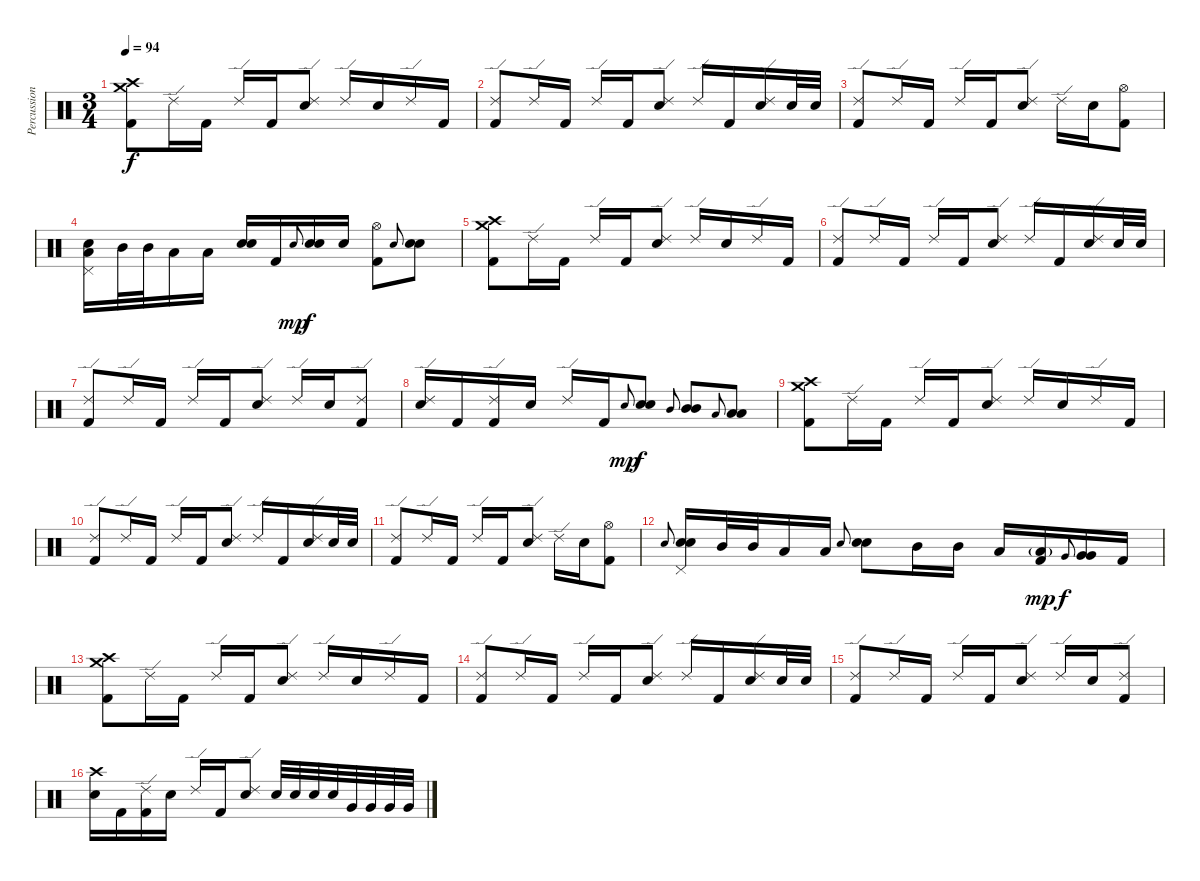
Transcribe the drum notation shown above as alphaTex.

\track ("Percussion" "Percussion") {instrument percussion}
\staff {score}
\articulation defaults
\ts (3 4)
\tempo 94
\clef neutral
\ks c
("Crash medium (hit)" "Crash high (hit)" "Kick (hit) 2").8{dy f} "Ride (edge) 2".16 "Kick (hit) 2".16 "Ride (edge) 2".16 "Kick (hit) 2".16 ("Ride (edge) 2" "Electric Snare (hit)").8 "Ride (edge) 2".16 "Electric Snare (hit)".16 "Ride (edge) 2".16 "Kick (hit) 2".16 |
("Ride (edge) 2" "Kick (hit) 2").8 "Ride (edge) 2".16 "Kick (hit) 2".16 "Ride (edge) 2".16 "Kick (hit) 2".16 ("Ride (edge) 2" "Electric Snare (hit)").8 "Ride (edge) 2".16 "Kick (hit) 2".16 ("Ride (edge) 2" "Electric Snare (hit)").16 "Electric Snare (hit)".32 "Electric Snare (hit)".32 |
("Ride (edge) 2" "Kick (hit) 2").8 "Ride (edge) 2".16 "Kick (hit) 2".16 "Ride (edge) 2".16 "Kick (hit) 2".16 ("Ride (edge) 2" "Electric Snare (hit)").8 "Ride (edge) 2".16 "Electric Snare (hit)".16 ("Hi-Hat (open)" "Kick (hit) 2").8 |
("Pedal Hi-Hat (hit)" "Low Tom (hit)" "Electric Snare (hit)").16 "Mid Tom (hit)".32 "Mid Tom (hit)".32 "Low Tom (hit)".16 "Low Tom (hit)".16 ("Electric Snare (hit)" "Electric Snare (hit)").16 "Kick (hit) 2".16 "Electric Snare (hit)".8{gr onbeat dy mp} ("Electric Snare (hit)" "Electric Snare (hit)").16{dy f} "Electric Snare (hit)".16 ("Hi-Hat (open)" "Kick (hit) 2").8 "Electric Snare (hit)".8{gr onbeat} ("Electric Snare (hit)" "Electric Snare (hit)").8 |
("Crash medium (hit)" "Crash high (hit)" "Kick (hit) 2").8 "Ride (edge) 2".16 "Kick (hit) 2".16 "Ride (edge) 2".16 "Kick (hit) 2".16 ("Ride (edge) 2" "Electric Snare (hit)").8 "Ride (edge) 2".16 "Electric Snare (hit)".16 "Ride (edge) 2".16 "Kick (hit) 2".16 |
("Ride (edge) 2" "Kick (hit) 2").8 "Ride (edge) 2".16 "Kick (hit) 2".16 "Ride (edge) 2".16 "Kick (hit) 2".16 ("Ride (edge) 2" "Electric Snare (hit)").8 "Ride (edge) 2".16 "Kick (hit) 2".16 ("Ride (edge) 2" "Electric Snare (hit)").16 "Electric Snare (hit)".32 "Electric Snare (hit)".32 |
("Ride (edge) 2" "Kick (hit) 2").8 "Ride (edge) 2".16 "Kick (hit) 2".16 "Ride (edge) 2".16 "Kick (hit) 2".16 ("Ride (edge) 2" "Electric Snare (hit)").8 "Ride (edge) 2".16 "Electric Snare (hit)".16 ("Ride (edge) 2" "Kick (hit) 2").8 |
("Ride (edge) 2" "Electric Snare (hit)").16 "Kick (hit) 2".16 ("Ride (edge) 2" "Kick (hit) 2").16 "Electric Snare (hit)".16 "Ride (edge) 2".16 "Kick (hit) 2".16 "Electric Snare (hit)".8{gr onbeat dy mp} ("Electric Snare (hit)" "Electric Snare (hit)").8{dy f} "Mid Tom (hit)".8{gr onbeat} ("Mid Tom (hit)" "Mid Tom (hit)").8 "Low Tom (hit)".8{gr onbeat} ("Low Tom (hit)" "Low Tom (hit)").8 |
("Crash medium (hit)" "Crash high (hit)" "Kick (hit) 2").8 "Ride (edge) 2".16 "Kick (hit) 2".16 "Ride (edge) 2".16 "Kick (hit) 2".16 ("Ride (edge) 2" "Electric Snare (hit)").8 "Ride (edge) 2".16 "Electric Snare (hit)".16 "Ride (edge) 2".16 "Kick (hit) 2".16 |
("Ride (edge) 2" "Kick (hit) 2").8 "Ride (edge) 2".16 "Kick (hit) 2".16 "Ride (edge) 2".16 "Kick (hit) 2".16 ("Ride (edge) 2" "Electric Snare (hit)").8 "Ride (edge) 2".16 "Kick (hit) 2".16 ("Ride (edge) 2" "Electric Snare (hit)").16 "Electric Snare (hit)".32 "Electric Snare (hit)".32 |
("Ride (edge) 2" "Kick (hit) 2").8 "Ride (edge) 2".16 "Kick (hit) 2".16 "Ride (edge) 2".16 "Kick (hit) 2".16 ("Ride (edge) 2" "Electric Snare (hit)").8 "Ride (edge) 2".16 "Electric Snare (hit)".16 ("Hi-Hat (open)" "Kick (hit) 2").8 |
"Electric Snare (hit)".8{gr onbeat} ("Pedal Hi-Hat (hit)" "Electric Snare (hit)" "Electric Snare (hit)").16 "Mid Tom (hit)".32 "Mid Tom (hit)".32 "Low Tom (hit)".16 "Low Tom (hit)".16 "Electric Snare (hit)".8{gr onbeat} ("Electric Snare (hit)" "Electric Snare (hit)").8 "Mid Tom (hit)".16 "Mid Tom (hit)".16 "Low Tom (hit)".16 ("Low Tom (hit)"{g} "Kick (hit) 2").16{dy mp} "Very Low Tom (hit)".8{gr onbeat dy f} ("Very Low Tom (hit)" "Very Low Tom (hit)").16 "Kick (hit) 2".16 |
("Crash medium (hit)" "Crash high (hit)" "Kick (hit) 2").8 "Ride (edge) 2".16 "Kick (hit) 2".16 "Ride (edge) 2".16 "Kick (hit) 2".16 ("Ride (edge) 2" "Electric Snare (hit)").8 "Ride (edge) 2".16 "Electric Snare (hit)".16 "Ride (edge) 2".16 "Kick (hit) 2".16 |
("Ride (edge) 2" "Kick (hit) 2").8 "Ride (edge) 2".16 "Kick (hit) 2".16 "Ride (edge) 2".16 "Kick (hit) 2".16 ("Ride (edge) 2" "Electric Snare (hit)").8 "Ride (edge) 2".16 "Kick (hit) 2".16 ("Ride (edge) 2" "Electric Snare (hit)").16 "Electric Snare (hit)".32 "Electric Snare (hit)".32 |
("Ride (edge) 2" "Kick (hit) 2").8 "Ride (edge) 2".16 "Kick (hit) 2".16 "Ride (edge) 2".16 "Kick (hit) 2".16 ("Ride (edge) 2" "Electric Snare (hit)").8 "Ride (edge) 2".16 "Electric Snare (hit)".16 ("Ride (edge) 2" "Kick (hit) 2").8 |
("Crash high (hit)" "Electric Snare (hit)").16 "Kick (hit) 2".16 ("Ride (edge) 2" "Kick (hit) 2").16 "Electric Snare (hit)".16 "Ride (edge) 2".16 "Kick (hit) 2".16 ("Ride (edge) 2" "Electric Snare (hit)").8 "Electric Snare (hit)".32 "Electric Snare (hit)".32 "Electric Snare (hit)".32 "Electric Snare (hit)".32 "Very Low Tom (hit)".32 "Very Low Tom (hit)".32 "Very Low Tom (hit)".32 "Very Low Tom (hit)".32
